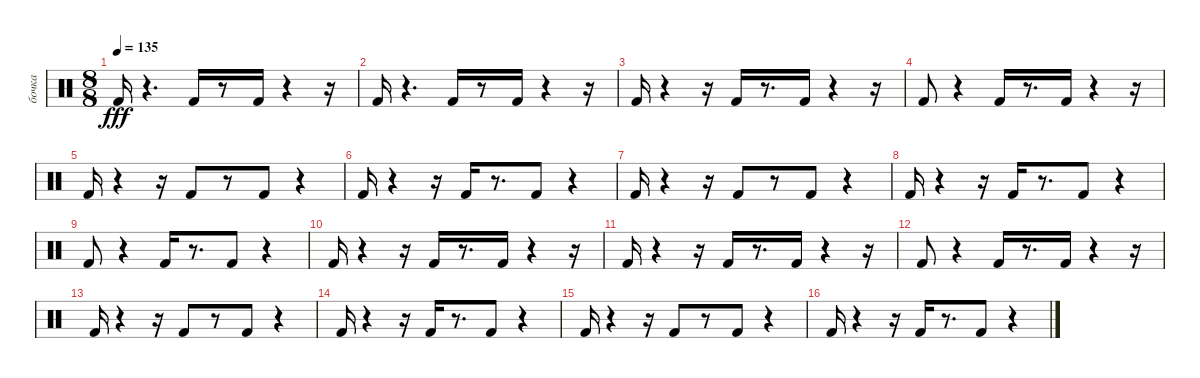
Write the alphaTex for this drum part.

\track ("бочка" "бочка") {instrument percussion}
\staff {score}
\articulation defaults
\ts (8 8)
\tempo 135
\clef neutral
\ks c "Kick (hit) 2".16{dy fff}
r.4{d} "Kick (hit) 2".16 r.8 "Kick (hit) 2".16 r.4 r.16 |
"Kick (hit) 2".16 r.4{d} "Kick (hit) 2".16 r.8 "Kick (hit) 2".16 r.4 r.16 |
"Kick (hit) 2".16 r.4 r.16 "Kick (hit) 2".16 r.8{d} "Kick (hit) 2".16 r.4 r.16 |
"Kick (hit) 2".8 r.4 "Kick (hit) 2".16 r.8{d} "Kick (hit) 2".16 r.4 r.16 |
"Kick (hit) 2".16 r.4 r.16 "Kick (hit) 2".8 r.8 "Kick (hit) 2".8 r.4 |
"Kick (hit) 2".16 r.4 r.16 "Kick (hit) 2".16 r.8{d} "Kick (hit) 2".8 r.4 |
"Kick (hit) 2".16 r.4 r.16 "Kick (hit) 2".8 r.8 "Kick (hit) 2".8 r.4 |
"Kick (hit) 2".16 r.4 r.16 "Kick (hit) 2".16 r.8{d} "Kick (hit) 2".8 r.4 |
"Kick (hit) 2".8 r.4 "Kick (hit) 2".16 r.8{d} "Kick (hit) 2".8 r.4 |
"Kick (hit) 2".16 r.4 r.16 "Kick (hit) 2".16 r.8{d} "Kick (hit) 2".16 r.4 r.16 |
"Kick (hit) 2".16 r.4 r.16 "Kick (hit) 2".16 r.8{d} "Kick (hit) 2".16 r.4 r.16 |
"Kick (hit) 2".8 r.4 "Kick (hit) 2".16 r.8{d} "Kick (hit) 2".16 r.4 r.16 |
"Kick (hit) 2".16 r.4 r.16 "Kick (hit) 2".8 r.8 "Kick (hit) 2".8 r.4 |
"Kick (hit) 2".16 r.4 r.16 "Kick (hit) 2".16 r.8{d} "Kick (hit) 2".8 r.4 |
"Kick (hit) 2".16 r.4 r.16 "Kick (hit) 2".8 r.8 "Kick (hit) 2".8 r.4 |
"Kick (hit) 2".16 r.4 r.16 "Kick (hit) 2".16 r.8{d} "Kick (hit) 2".8 r.4
